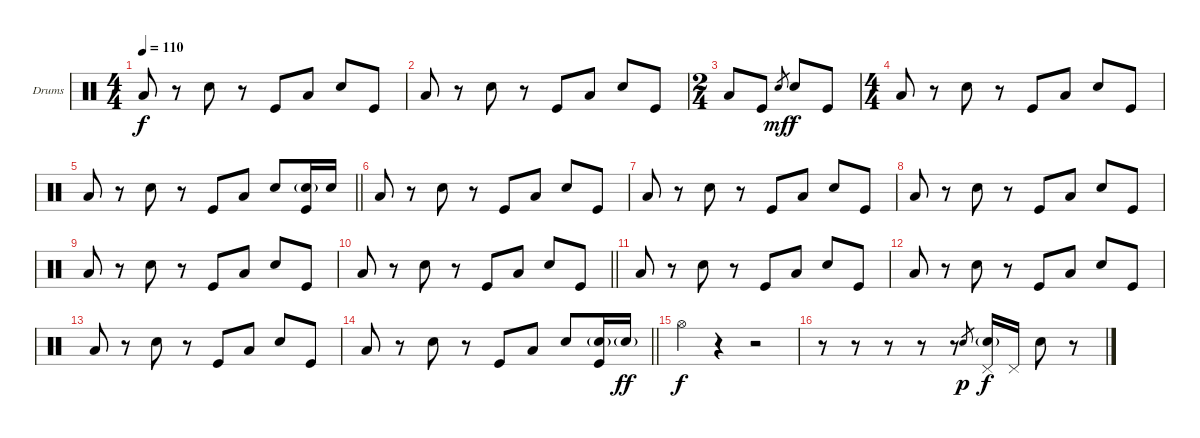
\bracketExtendMode groupsimilarinstruments
\firstSystemTrackNameOrientation horizontal
\otherSystemsTrackNameOrientation horizontal
\track ("Drumkit" "Drums") {instrument percussion}
\staff {score}
\articulation defaults
\ts (4 4)
\tempo 110
\clef neutral
\ks c "Low Tom (hit)".8{dy f}
r.8 "Snare (hit) 2".8 r.8 "Kick (hit)".8 "Low Tom (hit)".8 "Snare (hit) 2".8 "Kick (hit)".8 |
"Low Tom (hit)".8 r.8 "Snare (hit) 2".8 r.8 "Kick (hit)".8 "Low Tom (hit)".8 "Snare (hit) 2".8 "Kick (hit)".8 |
\ts (2 4)
\beaming (8 2 2 2 2)
"Low Tom (hit)".8 "Kick (hit)".8 "Snare (hit) 2".8{gr dy mf} "Snare (hit) 2".8{dy f} "Kick (hit)".8 |
\ts (4 4)
\beaming (8 2 2 2 2)
"Low Tom (hit)".8 r.8 "Snare (hit) 2".8 r.8 "Kick (hit)".8 "Low Tom (hit)".8 "Snare (hit) 2".8 "Kick (hit)".8 |
\barLineRight lightlight "Low Tom (hit)".8
r.8 "Snare (hit) 2".8 r.8 "Kick (hit)".8 "Low Tom (hit)".8 "Snare (hit) 2".8 ("Snare (hit) 2"{g} "Kick (hit)").16 "Snare (hit) 2".16 |
"Low Tom (hit)".8 r.8 "Snare (hit) 2".8 r.8 "Kick (hit)".8 "Low Tom (hit)".8 "Snare (hit) 2".8 "Kick (hit)".8 |
"Low Tom (hit)".8 r.8 "Snare (hit) 2".8 r.8 "Kick (hit)".8 "Low Tom (hit)".8 "Snare (hit) 2".8 "Kick (hit)".8 |
"Low Tom (hit)".8 r.8 "Snare (hit) 2".8 r.8 "Kick (hit)".8 "Low Tom (hit)".8 "Snare (hit) 2".8 "Kick (hit)".8 |
"Low Tom (hit)".8 r.8 "Snare (hit) 2".8 r.8 "Kick (hit)".8 "Low Tom (hit)".8 "Snare (hit) 2".8 "Kick (hit)".8 |
\barLineRight lightlight "Low Tom (hit)".8
r.8 "Snare (hit) 2".8 r.8 "Kick (hit)".8 "Low Tom (hit)".8 "Snare (hit) 2".8 "Kick (hit)".8 |
"Low Tom (hit)".8 r.8 "Snare (hit) 2".8 r.8 "Kick (hit)".8 "Low Tom (hit)".8 "Snare (hit) 2".8 "Kick (hit)".8 |
"Low Tom (hit)".8 r.8 "Snare (hit) 2".8 r.8 "Kick (hit)".8 "Low Tom (hit)".8 "Snare (hit) 2".8 "Kick (hit)".8 |
"Low Tom (hit)".8 r.8 "Snare (hit) 2".8 r.8 "Kick (hit)".8 "Low Tom (hit)".8 "Snare (hit) 2".8 "Kick (hit)".8 |
\barLineRight lightlight "Low Tom (hit)".8
r.8 "Snare (hit) 2".8 r.8 "Kick (hit)".8 "Low Tom (hit)".8 "Snare (hit) 2".8 ("Kick (hit)" "Snare (hit) 2"{g}).16 "Snare (hit) 2"{g}.16{dy ff} |
"Hi-Hat (open)".4{dy f} r.4 r.2 |
r.8 r.8 r.8 r.8 r.8 "Snare (hit) 2".8{gr dy p} ("Pedal Hi-Hat (hit)" "Snare (hit) 2"{g}).16{dy f} "Pedal Hi-Hat (hit)".16 "Snare (hit) 2".8 r.8
